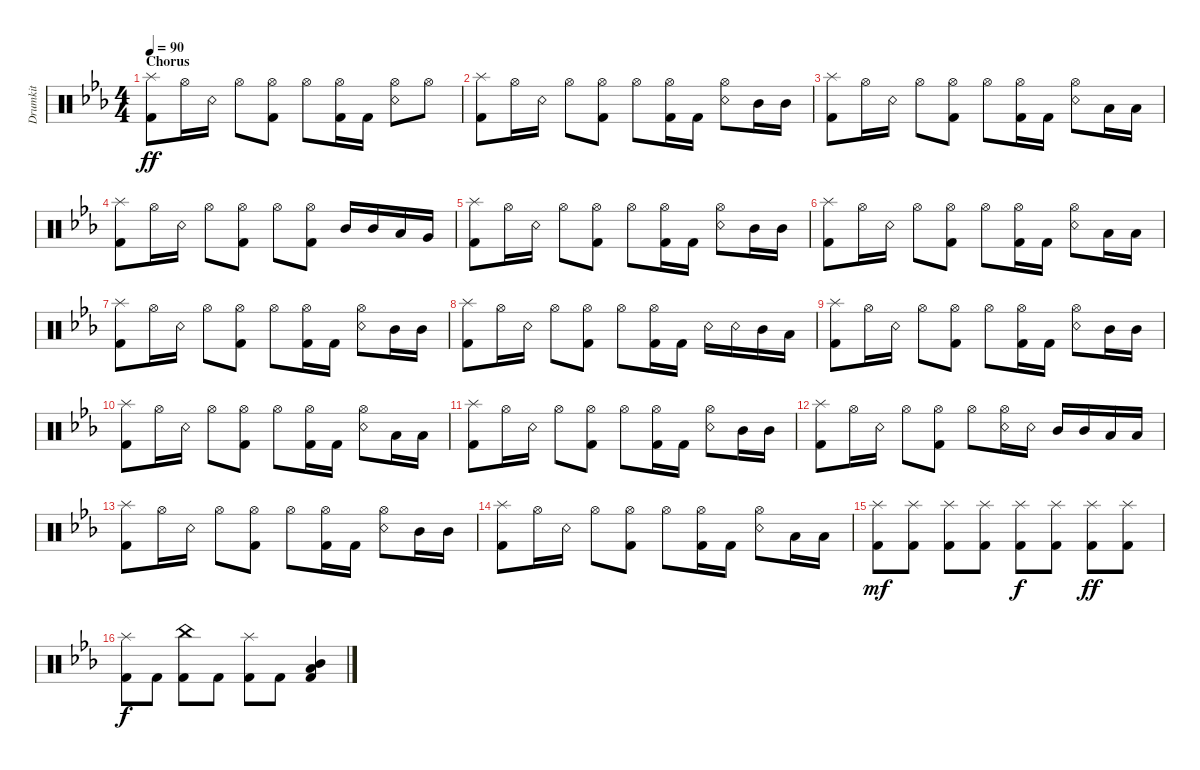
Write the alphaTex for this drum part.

\track ("Drumkit" "Drumkit") {instrument percussion}
\staff {score}
\articulation defaults
\ts (4 4)
\section ("" "Chorus")
\tempo 90
\clef neutral
\ks cminor
("Splash (hit)" "Kick (hit) 2").8{dy ff} "Hi-Hat (open)".16 "Snare (rim shot)".16 "Hi-Hat (open)".8 ("Hi-Hat (open)" "Kick (hit) 2").8 "Hi-Hat (open)".8 ("Hi-Hat (open)" "Kick (hit) 2").16 "Kick (hit) 2".16 ("Hi-Hat (open)" "Snare (rim shot)").8 "Hi-Hat (open)".8 |
("Splash (hit)" "Kick (hit) 2").8 "Hi-Hat (open)".16 "Snare (rim shot)".16 "Hi-Hat (open)".8 ("Hi-Hat (open)" "Kick (hit) 2").8 "Hi-Hat (open)".8 ("Hi-Hat (open)" "Kick (hit) 2").16 "Kick (hit) 2".16 ("Hi-Hat (open)" "Snare (rim shot)").8 "Mid Tom (hit)".16 "Mid Tom (hit)".16 |
("Splash (hit)" "Kick (hit) 2").8 "Hi-Hat (open)".16 "Snare (rim shot)".16 "Hi-Hat (open)".8 ("Hi-Hat (open)" "Kick (hit) 2").8 "Hi-Hat (open)".8 ("Hi-Hat (open)" "Kick (hit) 2").16 "Kick (hit) 2".16 ("Hi-Hat (open)" "Snare (rim shot)").8 "Low Tom (hit)".16 "Low Tom (hit)".16 |
("Splash (hit)" "Kick (hit) 2").8 "Hi-Hat (open)".16 "Snare (rim shot)".16 "Hi-Hat (open)".8 ("Hi-Hat (open)" "Kick (hit) 2").8 "Hi-Hat (open)".8 ("Hi-Hat (open)" "Kick (hit) 2").8 "Mid Tom (hit)".16 "Mid Tom (hit)".16 "Low Tom (hit)".16 "Very Low Tom (hit)".16 |
("Splash (hit)" "Kick (hit) 2").8 "Hi-Hat (open)".16 "Snare (rim shot)".16 "Hi-Hat (open)".8 ("Hi-Hat (open)" "Kick (hit) 2").8 "Hi-Hat (open)".8 ("Hi-Hat (open)" "Kick (hit) 2").16 "Kick (hit) 2".16 ("Hi-Hat (open)" "Snare (rim shot)").8 "Mid Tom (hit)".16 "Mid Tom (hit)".16 |
("Splash (hit)" "Kick (hit) 2").8 "Hi-Hat (open)".16 "Snare (rim shot)".16 "Hi-Hat (open)".8 ("Hi-Hat (open)" "Kick (hit) 2").8 "Hi-Hat (open)".8 ("Hi-Hat (open)" "Kick (hit) 2").16 "Kick (hit) 2".16 ("Hi-Hat (open)" "Snare (rim shot)").8 "Low Tom (hit)".16 "Low Tom (hit)".16 |
("Splash (hit)" "Kick (hit) 2").8 "Hi-Hat (open)".16 "Snare (rim shot)".16 "Hi-Hat (open)".8 ("Hi-Hat (open)" "Kick (hit) 2").8 "Hi-Hat (open)".8 ("Hi-Hat (open)" "Kick (hit) 2").16 "Kick (hit) 2".16 ("Hi-Hat (open)" "Snare (rim shot)").8 "Mid Tom (hit)".16 "Mid Tom (hit)".16 |
("Splash (hit)" "Kick (hit) 2").8 "Hi-Hat (open)".16 "Snare (rim shot)".16 "Hi-Hat (open)".8 ("Hi-Hat (open)" "Kick (hit) 2").8 "Hi-Hat (open)".8 ("Hi-Hat (open)" "Kick (hit) 2").16 "Kick (hit) 2".16 "Snare (rim shot)".16 "Snare (rim shot)".16 "Mid Tom (hit)".16 "Low Tom (hit)".16 |
("Splash (hit)" "Kick (hit) 2").8 "Hi-Hat (open)".16 "Snare (rim shot)".16 "Hi-Hat (open)".8 ("Hi-Hat (open)" "Kick (hit) 2").8 "Hi-Hat (open)".8 ("Hi-Hat (open)" "Kick (hit) 2").16 "Kick (hit) 2".16 ("Hi-Hat (open)" "Snare (rim shot)").8 "Mid Tom (hit)".16 "Mid Tom (hit)".16 |
("Splash (hit)" "Kick (hit) 2").8 "Hi-Hat (open)".16 "Snare (rim shot)".16 "Hi-Hat (open)".8 ("Hi-Hat (open)" "Kick (hit) 2").8 "Hi-Hat (open)".8 ("Hi-Hat (open)" "Kick (hit) 2").16 "Kick (hit) 2".16 ("Hi-Hat (open)" "Snare (rim shot)").8 "Low Tom (hit)".16 "Low Tom (hit)".16 |
("Splash (hit)" "Kick (hit) 2").8 "Hi-Hat (open)".16 "Snare (rim shot)".16 "Hi-Hat (open)".8 ("Hi-Hat (open)" "Kick (hit) 2").8 "Hi-Hat (open)".8 ("Hi-Hat (open)" "Kick (hit) 2").16 "Kick (hit) 2".16 ("Hi-Hat (open)" "Snare (rim shot)").8 "Mid Tom (hit)".16 "Mid Tom (hit)".16 |
("Splash (hit)" "Kick (hit) 2").8 "Hi-Hat (open)".16 "Snare (rim shot)".16 "Hi-Hat (open)".8 ("Hi-Hat (open)" "Kick (hit) 2").8 "Hi-Hat (open)".8 ("Hi-Hat (open)" "Snare (rim shot)").16 "Snare (rim shot)".16 "Mid Tom (hit)".16 "Mid Tom (hit)".16 "Low Tom (hit)".16 "Low Tom (hit)".16 |
("Splash (hit)" "Kick (hit) 2").8 "Hi-Hat (open)".16 "Snare (rim shot)".16 "Hi-Hat (open)".8 ("Hi-Hat (open)" "Kick (hit) 2").8 "Hi-Hat (open)".8 ("Hi-Hat (open)" "Kick (hit) 2").16 "Kick (hit) 2".16 ("Hi-Hat (open)" "Snare (rim shot)").8 "Mid Tom (hit)".16 "Mid Tom (hit)".16 |
("Splash (hit)" "Kick (hit) 2").8 "Hi-Hat (open)".16 "Snare (rim shot)".16 "Hi-Hat (open)".8 ("Hi-Hat (open)" "Kick (hit) 2").8 "Hi-Hat (open)".8 ("Hi-Hat (open)" "Kick (hit) 2").16 "Kick (hit) 2".16 ("Hi-Hat (open)" "Snare (rim shot)").8 "Low Tom (hit)".16 "Low Tom (hit)".16 |
("Kick (hit) 2" "Splash (hit)").8{dy mf} ("Kick (hit) 2" "Splash (hit)").8 ("Kick (hit) 2" "Splash (hit)").8 ("Kick (hit) 2" "Splash (hit)").8 ("Kick (hit) 2" "Splash (hit)").8{dy f} ("Kick (hit) 2" "Splash (hit)").8 ("Kick (hit) 2" "Splash (hit)").8{dy ff} ("Kick (hit) 2" "Splash (hit)").8 |
("Kick (hit) 2" "Splash (hit)").8{dy f} "Kick (hit) 2".8 ("Kick (hit) 2" "China (hit)").8 "Kick (hit) 2".8 ("Kick (hit) 2" "Splash (hit)").8 "Kick (hit) 2".8 ("Kick (hit) 2" "Mid Tom (hit)" "Low Tom (hit)").4
